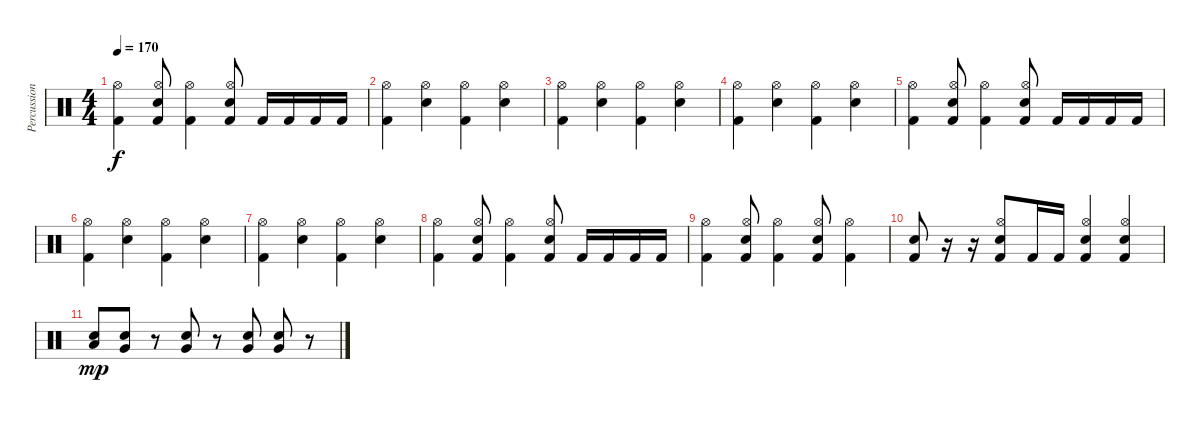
\track ("Percussion" "Percussion") {instrument percussion}
\staff {score}
\articulation defaults
\ts (4 4)
\tempo 170
\clef neutral
\ks c
("Kick (hit) 2" "Hi-Hat (open)").4{dy f} ("Hi-Hat (open)" "Snare (hit) 2" "Kick (hit) 2").8 ("Kick (hit) 2" "Hi-Hat (open)").4 ("Hi-Hat (open)" "Snare (hit) 2" "Kick (hit) 2").8 "Kick (hit) 2".16 "Kick (hit) 2".16 "Kick (hit) 2".16 "Kick (hit) 2".16 |
("Hi-Hat (open)" "Kick (hit) 2").4 ("Hi-Hat (open)" "Snare (hit) 2").4 ("Hi-Hat (open)" "Kick (hit) 2").4 ("Hi-Hat (open)" "Snare (hit) 2").4 |
("Hi-Hat (open)" "Kick (hit) 2").4 ("Hi-Hat (open)" "Snare (hit) 2").4 ("Hi-Hat (open)" "Kick (hit) 2").4 ("Hi-Hat (open)" "Snare (hit) 2").4 |
("Hi-Hat (open)" "Kick (hit) 2").4 ("Hi-Hat (open)" "Snare (hit) 2").4 ("Hi-Hat (open)" "Kick (hit) 2").4 ("Hi-Hat (open)" "Snare (hit) 2").4 |
("Kick (hit) 2" "Hi-Hat (open)").4 ("Hi-Hat (open)" "Snare (hit) 2" "Kick (hit) 2").8 ("Kick (hit) 2" "Hi-Hat (open)").4 ("Hi-Hat (open)" "Snare (hit) 2" "Kick (hit) 2").8 "Kick (hit) 2".16 "Kick (hit) 2".16 "Kick (hit) 2".16 "Kick (hit) 2".16 |
("Hi-Hat (open)" "Kick (hit) 2").4 ("Hi-Hat (open)" "Snare (hit) 2").4 ("Hi-Hat (open)" "Kick (hit) 2").4 ("Hi-Hat (open)" "Snare (hit) 2").4 |
("Hi-Hat (open)" "Kick (hit) 2").4 ("Hi-Hat (open)" "Snare (hit) 2").4 ("Hi-Hat (open)" "Kick (hit) 2").4 ("Hi-Hat (open)" "Snare (hit) 2").4 |
("Kick (hit) 2" "Hi-Hat (open)").4 ("Hi-Hat (open)" "Snare (hit) 2" "Kick (hit) 2").8 ("Kick (hit) 2" "Hi-Hat (open)").4 ("Hi-Hat (open)" "Snare (hit) 2" "Kick (hit) 2").8 "Kick (hit) 2".16 "Kick (hit) 2".16 "Kick (hit) 2".16 "Kick (hit) 2".16 |
("Kick (hit) 2" "Hi-Hat (open)").4 ("Hi-Hat (open)" "Snare (hit) 2" "Kick (hit) 2").8 ("Kick (hit) 2" "Hi-Hat (open)").4 ("Hi-Hat (open)" "Snare (hit) 2" "Kick (hit) 2").8 ("Kick (hit) 2" "Hi-Hat (open)").4 |
("Kick (hit) 2" "Snare (hit) 2").8 r.16 r.16 ("Kick (hit) 2" "Snare (hit) 2" "Hi-Hat (open)").8 "Kick (hit) 2".16 "Kick (hit) 2".16 ("Kick (hit) 2" "Snare (hit) 2" "Hi-Hat (open)").4 ("Kick (hit) 2" "Snare (hit) 2" "Hi-Hat (open)").4 |
("Low Tom (hit)" "Snare (hit) 2").8{dy mp} ("Very Low Tom (hit)" "Snare (hit) 2").8 r.8 ("Very Low Tom (hit)" "Snare (hit) 2").8 r.8 ("Very Low Tom (hit)" "Snare (hit) 2").8 ("Very Low Tom (hit)" "Snare (hit) 2").8 r.8
